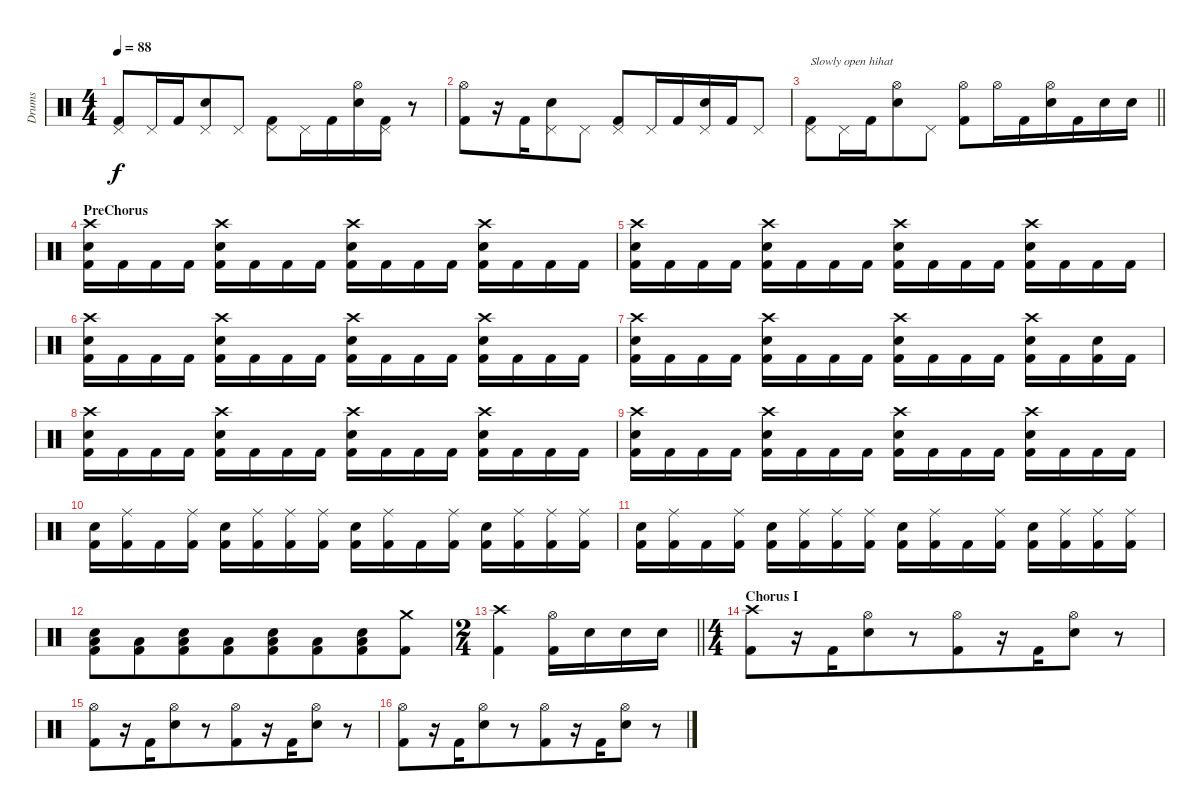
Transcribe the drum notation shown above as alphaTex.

\track ("Drums" "Drums") {instrument percussion}
\staff {score}
\articulation defaults
\ts (4 4)
\tempo 88
\clef neutral
\ks aminor
("Pedal Hi-Hat (hit)" "Kick (hit) 2").8{dy f} "Pedal Hi-Hat (hit)".16 "Kick (hit) 2".16{beam merge} ("Pedal Hi-Hat (hit)" "Electric Snare (hit)").8{beam merge} "Pedal Hi-Hat (hit)".8 ("Pedal Hi-Hat (hit)" "Kick (hit) 2").8{beam merge} "Pedal Hi-Hat (hit)".16 "Kick (hit) 2".16{beam merge} ("Hi-Hat (open)" "Electric Snare (hit)").16{beam merge} ("Pedal Hi-Hat (hit)" "Kick (hit) 2").16{beam merge} r.8 |
("Hi-Hat (open)" "Kick (hit) 2").8 r.16 "Kick (hit) 2".16{beam merge} ("Pedal Hi-Hat (hit)" "Electric Snare (hit)").8{beam merge} "Pedal Hi-Hat (hit)".8 ("Pedal Hi-Hat (hit)" "Kick (hit) 2").8{beam merge} "Pedal Hi-Hat (hit)".16 "Kick (hit) 2".16{beam merge} ("Pedal Hi-Hat (hit)" "Electric Snare (hit)").16{beam merge} "Kick (hit) 2".16{beam merge} "Pedal Hi-Hat (hit)".8 |
\barLineRight lightlight
("Pedal Hi-Hat (hit)" "Kick (hit) 2").8{txt "Slowly open hihat"} "Pedal Hi-Hat (hit)".16 "Kick (hit) 2".16{beam merge} ("Hi-Hat (open)" "Electric Snare (hit)").8{beam merge} "Pedal Hi-Hat (hit)".8 ("Hi-Hat (open)" "Kick (hit) 2").8{beam merge} "Hi-Hat (open)".16 "Kick (hit) 2".16{beam merge} ("Hi-Hat (open)" "Electric Snare (hit)").16{beam merge} "Kick (hit) 2".16{beam merge} "Electric Snare (hit)".16{beam merge} "Electric Snare (hit)".16 |
\section ("" "PreChorus")
("Crash high (hit)" "Electric Snare (hit)" "Kick (hit) 2").16 "Kick (hit) 2".16 "Kick (hit) 2".16 "Kick (hit) 2".16 ("Crash high (hit)" "Electric Snare (hit)" "Kick (hit) 2").16{beam merge} "Kick (hit) 2".16 "Kick (hit) 2".16 "Kick (hit) 2".16 ("Crash high (hit)" "Electric Snare (hit)" "Kick (hit) 2").16{beam merge} "Kick (hit) 2".16{beam merge} "Kick (hit) 2".16 "Kick (hit) 2".16 ("Crash high (hit)" "Electric Snare (hit)" "Kick (hit) 2").16{beam merge} "Kick (hit) 2".16 "Kick (hit) 2".16{beam merge} "Kick (hit) 2".16 |
("Crash high (hit)" "Electric Snare (hit)" "Kick (hit) 2").16 "Kick (hit) 2".16 "Kick (hit) 2".16 "Kick (hit) 2".16 ("Crash high (hit)" "Electric Snare (hit)" "Kick (hit) 2").16{beam merge} "Kick (hit) 2".16 "Kick (hit) 2".16 "Kick (hit) 2".16 ("Crash high (hit)" "Electric Snare (hit)" "Kick (hit) 2").16{beam merge} "Kick (hit) 2".16{beam merge} "Kick (hit) 2".16 "Kick (hit) 2".16 ("Crash high (hit)" "Electric Snare (hit)" "Kick (hit) 2").16{beam merge} "Kick (hit) 2".16 "Kick (hit) 2".16{beam merge} "Kick (hit) 2".16 |
("Crash high (hit)" "Electric Snare (hit)" "Kick (hit) 2").16 "Kick (hit) 2".16 "Kick (hit) 2".16 "Kick (hit) 2".16 ("Crash high (hit)" "Electric Snare (hit)" "Kick (hit) 2").16{beam merge} "Kick (hit) 2".16 "Kick (hit) 2".16 "Kick (hit) 2".16 ("Crash high (hit)" "Electric Snare (hit)" "Kick (hit) 2").16{beam merge} "Kick (hit) 2".16{beam merge} "Kick (hit) 2".16 "Kick (hit) 2".16 ("Crash high (hit)" "Electric Snare (hit)" "Kick (hit) 2").16{beam merge} "Kick (hit) 2".16 "Kick (hit) 2".16{beam merge} "Kick (hit) 2".16 |
("Crash high (hit)" "Electric Snare (hit)" "Kick (hit) 2").16 "Kick (hit) 2".16 "Kick (hit) 2".16 "Kick (hit) 2".16 ("Crash high (hit)" "Electric Snare (hit)" "Kick (hit) 2").16{beam merge} "Kick (hit) 2".16 "Kick (hit) 2".16 "Kick (hit) 2".16 ("Crash high (hit)" "Electric Snare (hit)" "Kick (hit) 2").16{beam merge} "Kick (hit) 2".16{beam merge} "Kick (hit) 2".16 "Kick (hit) 2".16 ("Crash high (hit)" "Electric Snare (hit)" "Kick (hit) 2").16{beam merge} "Kick (hit) 2".16 ("Electric Snare (hit)" "Kick (hit) 2").16{beam merge} "Kick (hit) 2".16 |
("Crash high (hit)" "Electric Snare (hit)" "Kick (hit) 2").16 "Kick (hit) 2".16 "Kick (hit) 2".16 "Kick (hit) 2".16 ("Crash high (hit)" "Electric Snare (hit)" "Kick (hit) 2").16{beam merge} "Kick (hit) 2".16 "Kick (hit) 2".16 "Kick (hit) 2".16 ("Crash high (hit)" "Electric Snare (hit)" "Kick (hit) 2").16{beam merge} "Kick (hit) 2".16{beam merge} "Kick (hit) 2".16 "Kick (hit) 2".16 ("Crash high (hit)" "Electric Snare (hit)" "Kick (hit) 2").16{beam merge} "Kick (hit) 2".16 "Kick (hit) 2".16{beam merge} "Kick (hit) 2".16 |
("Crash high (hit)" "Electric Snare (hit)" "Kick (hit) 2").16 "Kick (hit) 2".16 "Kick (hit) 2".16 "Kick (hit) 2".16 ("Crash high (hit)" "Electric Snare (hit)" "Kick (hit) 2").16{beam merge} "Kick (hit) 2".16 "Kick (hit) 2".16 "Kick (hit) 2".16 ("Crash high (hit)" "Electric Snare (hit)" "Kick (hit) 2").16{beam merge} "Kick (hit) 2".16{beam merge} "Kick (hit) 2".16 "Kick (hit) 2".16 ("Crash high (hit)" "Electric Snare (hit)" "Kick (hit) 2").16{beam merge} "Kick (hit) 2".16 "Kick (hit) 2".16{beam merge} "Kick (hit) 2".16 |
("Electric Snare (hit)" "Kick (hit) 2").16 ("Ride (middle)" "Kick (hit) 2").16 "Kick (hit) 2".16 ("Ride (middle)" "Kick (hit) 2").16 ("Electric Snare (hit)" "Kick (hit) 2").16{beam merge} ("Ride (middle)" "Kick (hit) 2").16 ("Ride (middle)" "Kick (hit) 2").16 ("Ride (middle)" "Kick (hit) 2").16 ("Electric Snare (hit)" "Kick (hit) 2").16{beam merge} ("Ride (middle)" "Kick (hit) 2").16{beam merge} "Kick (hit) 2".16 ("Ride (middle)" "Kick (hit) 2").16 ("Electric Snare (hit)" "Kick (hit) 2").16{beam merge} ("Ride (middle)" "Kick (hit) 2").16 ("Ride (middle)" "Kick (hit) 2").16{beam merge} ("Ride (middle)" "Kick (hit) 2").16 |
("Electric Snare (hit)" "Kick (hit) 2").16 ("Ride (middle)" "Kick (hit) 2").16 "Kick (hit) 2".16 ("Ride (middle)" "Kick (hit) 2").16 ("Electric Snare (hit)" "Kick (hit) 2").16{beam merge} ("Ride (middle)" "Kick (hit) 2").16 ("Ride (middle)" "Kick (hit) 2").16 ("Ride (middle)" "Kick (hit) 2").16 ("Electric Snare (hit)" "Kick (hit) 2").16{beam merge} ("Ride (middle)" "Kick (hit) 2").16{beam merge} "Kick (hit) 2".16 ("Ride (middle)" "Kick (hit) 2").16 ("Electric Snare (hit)" "Kick (hit) 2").16{beam merge} ("Ride (middle)" "Kick (hit) 2").16 ("Ride (middle)" "Kick (hit) 2").16{beam merge} ("Ride (middle)" "Kick (hit) 2").16 |
("Electric Snare (hit)" "Low Floor Tom (hit)" "Kick (hit) 2").8 ("Low Floor Tom (hit)" "Kick (hit) 2").8{beam merge} ("Electric Snare (hit)" "Low Floor Tom (hit)" "Kick (hit) 2").8{beam merge} ("Low Floor Tom (hit)" "Kick (hit) 2").8{beam merge} ("Electric Snare (hit)" "Low Floor Tom (hit)" "Kick (hit) 2").8{beam merge} ("Low Floor Tom (hit)" "Kick (hit) 2").8{beam merge} ("Electric Snare (hit)" "Low Floor Tom (hit)" "Kick (hit) 2").8 ("Crash medium (hit)" "Kick (hit) 2").8 |
\ts (2 4)
\barLineRight lightlight
("Crash high (hit)" "Kick (hit) 2").4{beam merge} ("Hi-Hat (open)" "Kick (hit) 2").16{beam merge} "Electric Snare (hit)".16 "Electric Snare (hit)".16{beam merge} "Electric Snare (hit)".16 |
\ts (4 4)
\section ("" "Chorus I")
("Crash high (hit)" "Kick (hit) 2").8 r.16 "Kick (hit) 2".16{beam merge} ("Hi-Hat (open)" "Electric Snare (hit)").8{beam merge} r.8 ("Hi-Hat (open)" "Kick (hit) 2").8{beam merge} r.16 "Kick (hit) 2".16{beam merge} ("Hi-Hat (open)" "Electric Snare (hit)").8{beam merge} r.8 |
("Hi-Hat (open)" "Kick (hit) 2").8 r.16 "Kick (hit) 2".16{beam merge} ("Hi-Hat (open)" "Electric Snare (hit)").8{beam merge} r.8 ("Hi-Hat (open)" "Kick (hit) 2").8{beam merge} r.16 "Kick (hit) 2".16{beam merge} ("Hi-Hat (open)" "Electric Snare (hit)").8{beam merge} r.8 |
("Hi-Hat (open)" "Kick (hit) 2").8 r.16 "Kick (hit) 2".16{beam merge} ("Hi-Hat (open)" "Electric Snare (hit)").8{beam merge} r.8 ("Hi-Hat (open)" "Kick (hit) 2").8{beam merge} r.16 "Kick (hit) 2".16{beam merge} ("Hi-Hat (open)" "Electric Snare (hit)").8{beam merge} r.8
